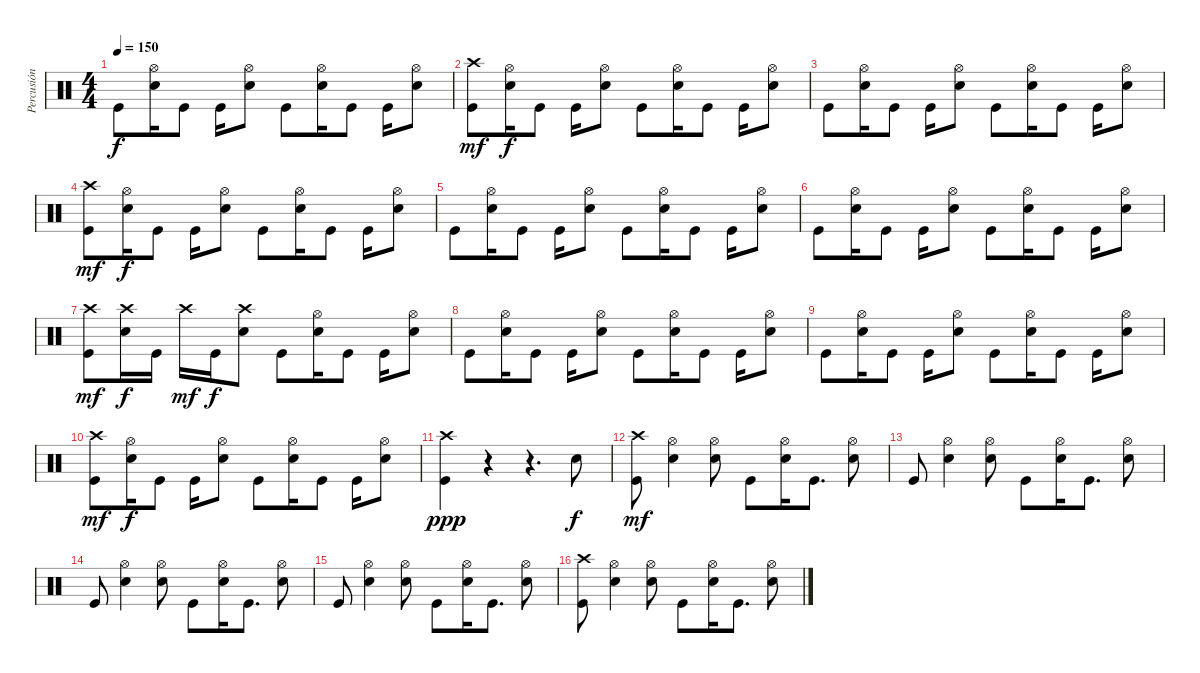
\track ("Percusión" "Percusión") {instrument percussion}
\staff {score}
\articulation defaults
\ts (4 4)
\tempo 150
\clef neutral
\ks c "Kick (hit)".8{dy f}
("Snare (hit) 2" "Hi-Hat (open)").16 "Kick (hit)".8 "Kick (hit)".16 ("Snare (hit) 2" "Hi-Hat (open)").8 "Kick (hit)".8 ("Snare (hit) 2" "Hi-Hat (open)").16 "Kick (hit)".8 "Kick (hit)".16 ("Snare (hit) 2" "Hi-Hat (open)").8 |
("Kick (hit)" "Crash high (hit)").8{dy mf} ("Snare (hit) 2" "Hi-Hat (open)").16{dy f} "Kick (hit)".8 "Kick (hit)".16 ("Snare (hit) 2" "Hi-Hat (open)").8 "Kick (hit)".8 ("Snare (hit) 2" "Hi-Hat (open)").16 "Kick (hit)".8 "Kick (hit)".16 ("Snare (hit) 2" "Hi-Hat (open)").8 |
"Kick (hit)".8 ("Snare (hit) 2" "Hi-Hat (open)").16 "Kick (hit)".8 "Kick (hit)".16 ("Snare (hit) 2" "Hi-Hat (open)").8 "Kick (hit)".8 ("Snare (hit) 2" "Hi-Hat (open)").16 "Kick (hit)".8 "Kick (hit)".16 ("Snare (hit) 2" "Hi-Hat (open)").8 |
("Kick (hit)" "Crash high (hit)").8{dy mf} ("Snare (hit) 2" "Hi-Hat (open)").16{dy f} "Kick (hit)".8 "Kick (hit)".16 ("Snare (hit) 2" "Hi-Hat (open)").8 "Kick (hit)".8 ("Snare (hit) 2" "Hi-Hat (open)").16 "Kick (hit)".8 "Kick (hit)".16 ("Snare (hit) 2" "Hi-Hat (open)").8 |
"Kick (hit)".8 ("Snare (hit) 2" "Hi-Hat (open)").16 "Kick (hit)".8 "Kick (hit)".16 ("Snare (hit) 2" "Hi-Hat (open)").8 "Kick (hit)".8 ("Snare (hit) 2" "Hi-Hat (open)").16 "Kick (hit)".8 "Kick (hit)".16 ("Snare (hit) 2" "Hi-Hat (open)").8 |
"Kick (hit)".8 ("Snare (hit) 2" "Hi-Hat (open)").16 "Kick (hit)".8 "Kick (hit)".16 ("Snare (hit) 2" "Hi-Hat (open)").8 "Kick (hit)".8 ("Snare (hit) 2" "Hi-Hat (open)").16 "Kick (hit)".8 "Kick (hit)".16 ("Snare (hit) 2" "Hi-Hat (open)").8 |
("Kick (hit)" "Crash high (hit)").8{dy mf} ("Snare (hit) 2" "Crash high (hit)").16{dy f} "Kick (hit)".16 "Crash high (hit)".16{dy mf} "Kick (hit)".16{dy f} ("Snare (hit) 2" "Crash high (hit)").8 "Kick (hit)".8 ("Snare (hit) 2" "Hi-Hat (open)").16 "Kick (hit)".8 "Kick (hit)".16 ("Snare (hit) 2" "Hi-Hat (open)").8 |
"Kick (hit)".8 ("Snare (hit) 2" "Hi-Hat (open)").16 "Kick (hit)".8 "Kick (hit)".16 ("Snare (hit) 2" "Hi-Hat (open)").8 "Kick (hit)".8 ("Snare (hit) 2" "Hi-Hat (open)").16 "Kick (hit)".8 "Kick (hit)".16 ("Snare (hit) 2" "Hi-Hat (open)").8 |
"Kick (hit)".8 ("Snare (hit) 2" "Hi-Hat (open)").16 "Kick (hit)".8 "Kick (hit)".16 ("Snare (hit) 2" "Hi-Hat (open)").8 "Kick (hit)".8 ("Snare (hit) 2" "Hi-Hat (open)").16 "Kick (hit)".8 "Kick (hit)".16 ("Snare (hit) 2" "Hi-Hat (open)").8 |
("Kick (hit)" "Crash high (hit)").8{dy mf} ("Snare (hit) 2" "Hi-Hat (open)").16{dy f} "Kick (hit)".8 "Kick (hit)".16 ("Snare (hit) 2" "Hi-Hat (open)").8 "Kick (hit)".8 ("Snare (hit) 2" "Hi-Hat (open)").16 "Kick (hit)".8 "Kick (hit)".16 ("Snare (hit) 2" "Hi-Hat (open)").8 |
("Crash high (hit)" "Kick (hit)").4{dy ppp} r.4 r.4{d} "Snare (hit) 2".8{dy f} |
("Kick (hit)" "Crash high (hit)").8{dy mf} ("Snare (hit) 2" "Hi-Hat (open)").4 ("Snare (hit) 2" "Hi-Hat (open)").8 "Kick (hit)".8 ("Snare (hit) 2" "Hi-Hat (open)").16 "Kick (hit)".8{d} ("Snare (hit) 2" "Hi-Hat (open)").8 |
"Kick (hit)".8 ("Snare (hit) 2" "Hi-Hat (open)").4 ("Snare (hit) 2" "Hi-Hat (open)").8 "Kick (hit)".8 ("Snare (hit) 2" "Hi-Hat (open)").16 "Kick (hit)".8{d} ("Snare (hit) 2" "Hi-Hat (open)").8 |
"Kick (hit)".8 ("Snare (hit) 2" "Hi-Hat (open)").4 ("Snare (hit) 2" "Hi-Hat (open)").8 "Kick (hit)".8 ("Snare (hit) 2" "Hi-Hat (open)").16 "Kick (hit)".8{d} ("Snare (hit) 2" "Hi-Hat (open)").8 |
"Kick (hit)".8 ("Snare (hit) 2" "Hi-Hat (open)").4 ("Snare (hit) 2" "Hi-Hat (open)").8 "Kick (hit)".8 ("Snare (hit) 2" "Hi-Hat (open)").16 "Kick (hit)".8{d} ("Snare (hit) 2" "Hi-Hat (open)").8 |
("Kick (hit)" "Crash high (hit)").8 ("Snare (hit) 2" "Hi-Hat (open)").4 ("Snare (hit) 2" "Hi-Hat (open)").8 "Kick (hit)".8 ("Snare (hit) 2" "Hi-Hat (open)").16 "Kick (hit)".8{d} ("Snare (hit) 2" "Hi-Hat (open)").8
